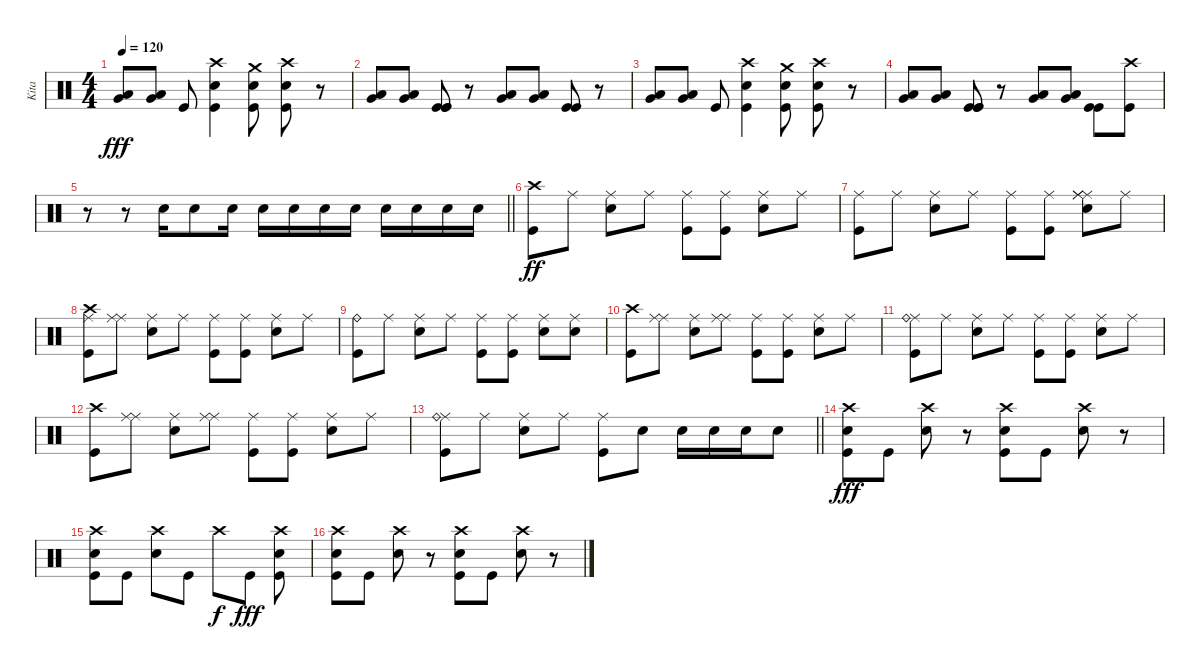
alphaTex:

\track ("Kita" "Kita") {instrument percussion}
\staff {score}
\articulation defaults
\ts (4 4)
\tempo 120
\clef neutral
\ks c
("Very Low Tom (hit)" "Low Floor Tom (hit)").8{dy fff} ("Low Floor Tom (hit)" "Very Low Tom (hit)").8 "Kick (hit)".8 ("Snare (hit) 2" "Crash high (hit)" "Kick (hit)").4 ("Snare (hit) 2" "Crash medium (hit)" "Kick (hit)").8 ("Crash high (hit)" "Snare (hit) 2" "Kick (hit)").8 r.8 |
("Very Low Tom (hit)" "Low Floor Tom (hit)").8 ("Low Floor Tom (hit)" "Very Low Tom (hit)").8 ("Kick (hit)" "Kick (hit)" "Kick (hit)").8 r.8 ("Very Low Tom (hit)" "Low Tom (hit)").8 ("Very Low Tom (hit)" "Low Tom (hit)").8 ("Kick (hit)" "Kick (hit)").8 r.8 |
("Very Low Tom (hit)" "Low Floor Tom (hit)").8 ("Low Floor Tom (hit)" "Very Low Tom (hit)").8 "Kick (hit)".8 ("Snare (hit) 2" "Crash high (hit)" "Kick (hit)").4 ("Snare (hit) 2" "Crash medium (hit)" "Kick (hit)").8 ("Crash high (hit)" "Snare (hit) 2" "Kick (hit)").8 r.8 |
("Very Low Tom (hit)" "Low Floor Tom (hit)").8 ("Low Floor Tom (hit)" "Very Low Tom (hit)").8 ("Kick (hit)" "Kick (hit)" "Kick (hit)").8 r.8 ("Very Low Tom (hit)" "Low Tom (hit)").8 ("Very Low Tom (hit)" "Low Tom (hit)").8 ("Kick (hit)" "Kick (hit)").8 ("Kick (hit)" "Crash high (hit)").8 |
\barLineRight lightlight
r.8 r.8 "Snare (hit) 2".16 "Snare (hit) 2".8 "Snare (hit) 2".16 "Snare (hit) 2".16 "Snare (hit) 2".16 "Snare (hit) 2".16 "Snare (hit) 2".16 "Snare (hit) 2".16 "Snare (hit) 2".16 "Snare (hit) 2".16 "Snare (hit) 2".16 |
("Kick (hit)" "Crash high (hit)").8{dy ff} "Ride (middle)".8 ("Snare (hit) 2" "Ride (middle)").8 "Ride (middle)".8 ("Ride (middle)" "Kick (hit)").8 ("Ride (middle)" "Kick (hit)").8 ("Ride (middle)" "Snare (hit) 2").8 "Ride (middle)".8 |
("Ride (middle)" "Kick (hit)").8 "Ride (middle)".8 ("Ride (middle)" "Snare (hit) 2").8 "Ride (middle)".8 ("Ride (middle)" "Kick (hit)").8 ("Ride (middle)" "Kick (hit)").8 ("Ride (middle)" "Snare (hit) 2" "Ride (middle)" "Ride (middle)").8 "Ride (middle)".8 |
("Kick (hit)" "Crash high (hit)" "Ride (middle)").8 ("Ride (middle)" "Ride (middle)").8 ("Snare (hit) 2" "Ride (middle)").8 "Ride (middle)".8 ("Ride (middle)" "Kick (hit)").8 ("Ride (middle)" "Kick (hit)").8 ("Ride (middle)" "Snare (hit) 2").8 "Ride (middle)".8 |
("Ride (bell)" "Kick (hit)").8 "Ride (middle)".8 ("Ride (middle)" "Snare (hit) 2").8 "Ride (middle)".8 ("Ride (middle)" "Kick (hit)").8 ("Ride (middle)" "Kick (hit)").8 ("Ride (middle)" "Snare (hit) 2").8 ("Ride (middle)" "Snare (hit) 2").8 |
("Kick (hit)" "Crash high (hit)").8 ("Ride (middle)" "Ride (middle)").8 ("Snare (hit) 2" "Ride (middle)").8 ("Ride (middle)" "Ride (middle)").8 ("Ride (middle)" "Kick (hit)").8 ("Ride (middle)" "Kick (hit)").8 ("Ride (middle)" "Snare (hit) 2").8 "Ride (middle)".8 |
("Ride (middle)" "Ride (bell)" "Kick (hit)").8 "Ride (middle)".8 ("Ride (middle)" "Snare (hit) 2").8 "Ride (middle)".8 ("Ride (middle)" "Kick (hit)").8 ("Ride (middle)" "Kick (hit)").8 ("Ride (middle)" "Snare (hit) 2").8 "Ride (middle)".8 |
("Kick (hit)" "Crash high (hit)").8 ("Ride (middle)" "Ride (middle)").8 ("Snare (hit) 2" "Ride (middle)").8 ("Ride (middle)" "Ride (middle)").8 ("Ride (middle)" "Kick (hit)").8 ("Ride (middle)" "Kick (hit)").8 ("Ride (middle)" "Snare (hit) 2").8 "Ride (middle)".8 |
\barLineRight lightlight
("Ride (middle)" "Ride (bell)" "Kick (hit)").8 "Ride (middle)".8 ("Ride (middle)" "Snare (hit) 2").8 "Ride (middle)".8 ("Ride (middle)" "Kick (hit)").8 "Snare (hit) 2".8 "Snare (hit) 2".16 "Snare (hit) 2".16 "Snare (hit) 2".16 "Snare (hit) 2".8 |
("Crash high (hit)" "Kick (hit)" "Snare (hit) 2").8{dy fff} "Kick (hit)".8 ("Snare (hit) 2" "Crash high (hit)").8 r.8 ("Kick (hit)" "Snare (hit) 2" "Crash high (hit)").8 "Kick (hit)".8 ("Snare (hit) 2" "Crash high (hit)").8 r.8 |
("Kick (hit)" "Snare (hit) 2" "Crash high (hit)").8 "Kick (hit)".8 ("Snare (hit) 2" "Crash high (hit)").8 "Kick (hit)".8 "Crash high (hit)".8{dy f} "Kick (hit)".8{dy fff} ("Crash high (hit)" "Snare (hit) 2" "Kick (hit)").8 |
("Crash high (hit)" "Kick (hit)" "Snare (hit) 2").8 "Kick (hit)".8 ("Snare (hit) 2" "Crash high (hit)").8 r.8 ("Kick (hit)" "Snare (hit) 2" "Crash high (hit)").8 "Kick (hit)".8 ("Snare (hit) 2" "Crash high (hit)").8 r.8
